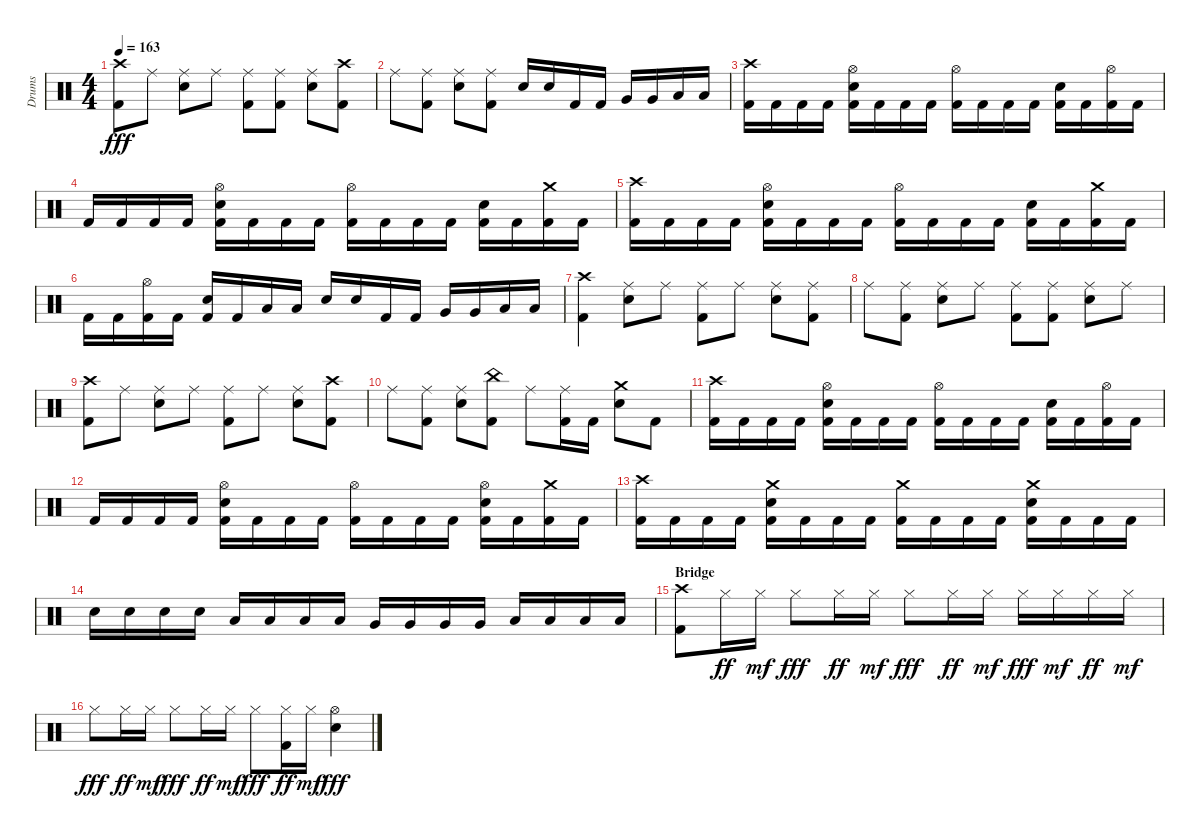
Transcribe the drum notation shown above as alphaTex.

\track ("Drums" "Drums") {instrument percussion}
\staff {score}
\articulation defaults
\ts (4 4)
\tempo 163
\clef neutral
\ks aminor
("Kick (hit) 2" "Crash high (hit)").8{dy fff} "Ride (middle)".8 ("Ride (middle)" "Snare (hit) 2").8 "Ride (middle)".8 ("Ride (middle)" "Kick (hit) 2").8 ("Ride (middle)" "Kick (hit) 2").8 ("Snare (hit) 2" "Ride (middle)").8 ("Kick (hit) 2" "Crash high (hit)").8 |
"Ride (middle)".8 ("Kick (hit) 2" "Ride (middle)").8 ("Ride (middle)" "Snare (hit) 2").8 ("Kick (hit) 2" "Ride (middle)").8 "Snare (hit) 2".16 "Snare (hit) 2".16 "Kick (hit) 2".16 "Kick (hit) 2".16 "Very Low Tom (hit)".16 "Very Low Tom (hit)".16 "Low Floor Tom (hit)".16 "Low Floor Tom (hit)".16 |
("Kick (hit) 2" "Crash high (hit)").16 "Kick (hit) 2".16 "Kick (hit) 2".16 "Kick (hit) 2".16 ("Hi-Hat (open)" "Kick (hit) 2" "Snare (hit) 2").16 "Kick (hit) 2".16 "Kick (hit) 2".16 "Kick (hit) 2".16 ("Hi-Hat (open)" "Kick (hit) 2").16 "Kick (hit) 2".16 "Kick (hit) 2".16 "Kick (hit) 2".16 ("Snare (hit) 2" "Kick (hit) 2").16 "Kick (hit) 2".16 ("Hi-Hat (open)" "Kick (hit) 2").16 "Kick (hit) 2".16 |
"Kick (hit) 2".16 "Kick (hit) 2".16 "Kick (hit) 2".16 "Kick (hit) 2".16 ("Snare (hit) 2" "Hi-Hat (open)" "Kick (hit) 2").16 "Kick (hit) 2".16 "Kick (hit) 2".16 "Kick (hit) 2".16 ("Hi-Hat (open)" "Kick (hit) 2").16 "Kick (hit) 2".16 "Kick (hit) 2".16 "Kick (hit) 2".16 ("Kick (hit) 2" "Snare (hit) 2").16 "Kick (hit) 2".16 ("Kick (hit) 2" "Crash medium (hit)").16 "Kick (hit) 2".16 |
("Crash high (hit)" "Kick (hit) 2").16 "Kick (hit) 2".16 "Kick (hit) 2".16 "Kick (hit) 2".16 ("Kick (hit) 2" "Snare (hit) 2" "Hi-Hat (open)").16 "Kick (hit) 2".16 "Kick (hit) 2".16 "Kick (hit) 2".16 ("Hi-Hat (open)" "Kick (hit) 2").16 "Kick (hit) 2".16 "Kick (hit) 2".16 "Kick (hit) 2".16 ("Snare (hit) 2" "Kick (hit) 2").16 "Kick (hit) 2".16 ("Crash medium (hit)" "Kick (hit) 2").16 "Kick (hit) 2".16 |
"Kick (hit) 2".16 "Kick (hit) 2".16 ("Kick (hit) 2" "Hi-Hat (open)").16 "Kick (hit) 2".16 ("Kick (hit) 2" "Snare (hit) 2").16 "Kick (hit) 2".16 "Low Floor Tom (hit)".16 "Low Floor Tom (hit)".16 "Snare (hit) 2".16 "Snare (hit) 2".16 "Kick (hit) 2".16 "Kick (hit) 2".16 "Very Low Tom (hit)".16 "Very Low Tom (hit)".16 "Low Floor Tom (hit)".16 "Low Floor Tom (hit)".16 |
("Crash high (hit)" "Kick (hit) 2").4 ("Snare (hit) 2" "Ride (middle)").8 "Ride (middle)".8 ("Kick (hit) 2" "Ride (middle)").8 "Ride (middle)".8 ("Ride (middle)" "Snare (hit) 2").8 ("Kick (hit) 2" "Ride (middle)").8 |
"Ride (middle)".8 ("Kick (hit) 2" "Ride (middle)").8 ("Ride (middle)" "Snare (hit) 2").8 "Ride (middle)".8 ("Kick (hit) 2" "Ride (middle)").8 ("Kick (hit) 2" "Ride (middle)").8 ("Ride (middle)" "Snare (hit) 2").8 "Ride (middle)".8 |
("Crash high (hit)" "Kick (hit) 2").8 "Ride (middle)".8 ("Ride (middle)" "Snare (hit) 2").8 "Ride (middle)".8 ("Ride (middle)" "Kick (hit) 2").8 "Ride (middle)".8 ("Snare (hit) 2" "Ride (middle)").8 ("Kick (hit) 2" "Crash high (hit)").8 |
"Ride (middle)".8 ("Ride (middle)" "Kick (hit) 2").8 ("Ride (middle)" "Snare (hit) 2").8 ("Kick (hit) 2" "China (hit)").8 "Ride (middle)".8 ("Kick (hit) 2" "Ride (middle)").16 "Kick (hit) 2".16 ("Snare (hit) 2" "Crash medium (hit)").8 "Kick (hit) 2".8 |
("Crash high (hit)" "Kick (hit) 2").16 "Kick (hit) 2".16 "Kick (hit) 2".16 "Kick (hit) 2".16 ("Hi-Hat (open)" "Snare (hit) 2" "Kick (hit) 2").16 "Kick (hit) 2".16 "Kick (hit) 2".16 "Kick (hit) 2".16 ("Kick (hit) 2" "Hi-Hat (open)").16 "Kick (hit) 2".16 "Kick (hit) 2".16 "Kick (hit) 2".16 ("Kick (hit) 2" "Snare (hit) 2").16 "Kick (hit) 2".16 ("Hi-Hat (open)" "Kick (hit) 2").16 "Kick (hit) 2".16 |
"Kick (hit) 2".16 "Kick (hit) 2".16 "Kick (hit) 2".16 "Kick (hit) 2".16 ("Kick (hit) 2" "Snare (hit) 2" "Hi-Hat (open)").16 "Kick (hit) 2".16 "Kick (hit) 2".16 "Kick (hit) 2".16 ("Kick (hit) 2" "Hi-Hat (open)").16 "Kick (hit) 2".16 "Kick (hit) 2".16 "Kick (hit) 2".16 ("Snare (hit) 2" "Hi-Hat (open)" "Kick (hit) 2").16 "Kick (hit) 2".16 ("Kick (hit) 2" "Crash medium (hit)").16 "Kick (hit) 2".16 |
("Kick (hit) 2" "Crash high (hit)").16 "Kick (hit) 2".16 "Kick (hit) 2".16 "Kick (hit) 2".16 ("Kick (hit) 2" "Snare (hit) 2" "Crash medium (hit)").16 "Kick (hit) 2".16 "Kick (hit) 2".16 "Kick (hit) 2".16 ("Kick (hit) 2" "Crash medium (hit)").16 "Kick (hit) 2".16 "Kick (hit) 2".16 "Kick (hit) 2".16 ("Kick (hit) 2" "Crash medium (hit)" "Snare (hit) 2").16 "Kick (hit) 2".16 "Kick (hit) 2".16 "Kick (hit) 2".16 |
"Snare (hit) 2".16 "Snare (hit) 2".16 "Snare (hit) 2".16 "Snare (hit) 2".16 "Low Tom (hit)".16 "Low Tom (hit)".16 "Low Tom (hit)".16 "Low Tom (hit)".16 "Very Low Tom (hit)".16 "Very Low Tom (hit)".16 "Very Low Tom (hit)".16 "Very Low Tom (hit)".16 "Low Floor Tom (hit)".16 "Low Floor Tom (hit)".16 "Low Floor Tom (hit)".16 "Low Floor Tom (hit)".16 |
\section ("" "Bridge")
("Crash high (hit)" "Kick (hit) 2").8 "Hi-Hat (closed)".16{dy ff} "Hi-Hat (closed)".16{dy mf} "Hi-Hat (closed)".8{dy fff} "Hi-Hat (closed)".16{dy ff} "Hi-Hat (closed)".16{dy mf} "Hi-Hat (closed)".8{dy fff} "Hi-Hat (closed)".16{dy ff} "Hi-Hat (closed)".16{dy mf} "Hi-Hat (closed)".16{dy fff} "Hi-Hat (closed)".16{dy mf} "Hi-Hat (closed)".16{dy ff} "Hi-Hat (closed)".16{dy mf} |
"Hi-Hat (closed)".8{dy fff} "Hi-Hat (closed)".16{dy ff} "Hi-Hat (closed)".16{dy mf} "Hi-Hat (closed)".8{dy fff} "Hi-Hat (closed)".16{dy ff} "Hi-Hat (closed)".16{dy mf} "Hi-Hat (closed)".8{dy fff} ("Hi-Hat (closed)" "Kick (hit) 2").16{dy ff} "Hi-Hat (closed)".16{dy mf} ("Snare (hit) 2" "Hi-Hat (open)").4{dy fff}
